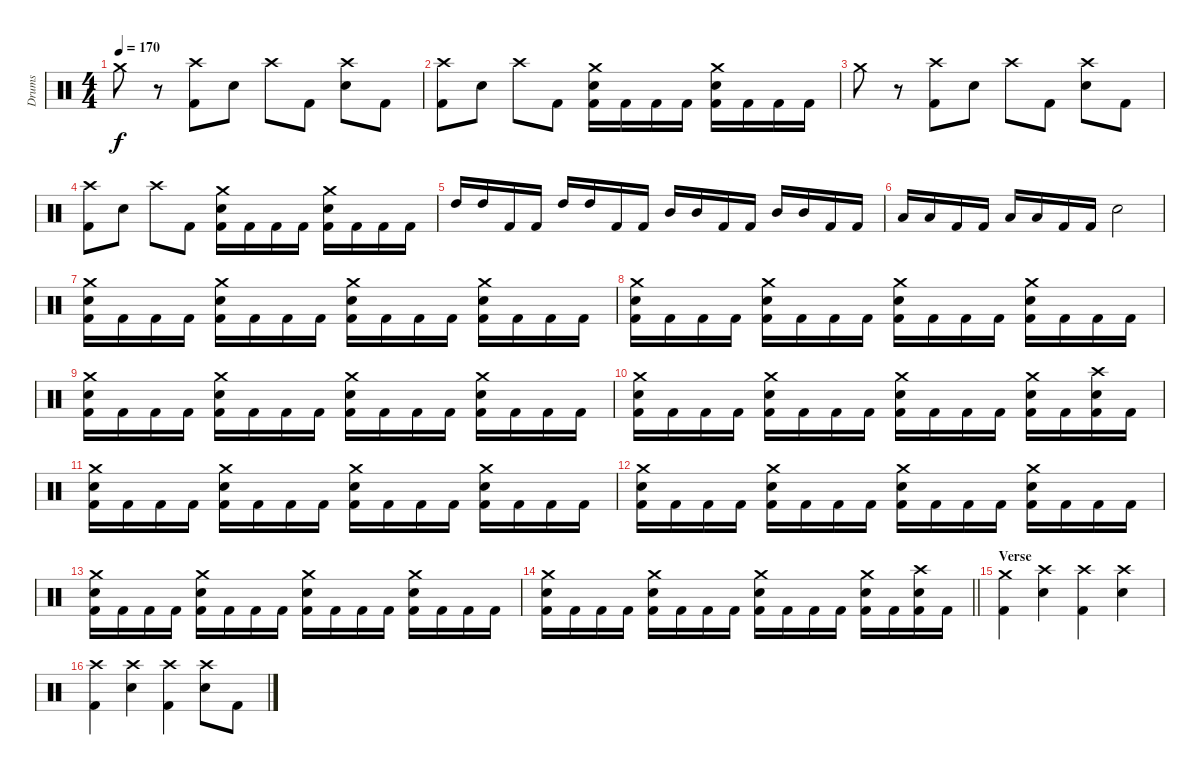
\track ("Drums" "Drums") {instrument percussion}
\staff {score}
\articulation defaults
\ts (4 4)
\tempo 170
\clef neutral
\ks c "Crash medium (hit)".8{dy f}
r.8 ("Crash high (hit)" "Kick (hit) 2").8 "Electric Snare (hit)".8 "Crash high (hit)".8 "Kick (hit) 2".8 ("Crash high (hit)" "Electric Snare (hit)").8 "Kick (hit) 2".8 |
("Crash high (hit)" "Kick (hit) 2").8 "Electric Snare (hit)".8 "Crash high (hit)".8 "Kick (hit) 2".8 ("Crash medium (hit)" "Electric Snare (hit)" "Kick (hit) 2").16 "Kick (hit) 2".16 "Kick (hit) 2".16 "Kick (hit) 2".16 ("Crash medium (hit)" "Electric Snare (hit)" "Kick (hit) 2").16 "Kick (hit) 2".16 "Kick (hit) 2".16 "Kick (hit) 2".16 |
"Crash medium (hit)".8 r.8 ("Crash high (hit)" "Kick (hit) 2").8 "Electric Snare (hit)".8 "Crash high (hit)".8 "Kick (hit) 2".8 ("Crash high (hit)" "Electric Snare (hit)").8 "Kick (hit) 2".8 |
("Crash high (hit)" "Kick (hit) 2").8 "Electric Snare (hit)".8 "Crash high (hit)".8 "Kick (hit) 2".8 ("Crash medium (hit)" "Electric Snare (hit)" "Kick (hit) 2").16 "Kick (hit) 2".16 "Kick (hit) 2".16 "Kick (hit) 2".16 ("Crash medium (hit)" "Electric Snare (hit)" "Kick (hit) 2").16 "Kick (hit) 2".16 "Kick (hit) 2".16 "Kick (hit) 2".16 |
"High Tom (hit)".16 "High Tom (hit)".16 "Kick (hit) 2".16 "Kick (hit) 2".16 "High Tom (hit)".16 "High Tom (hit)".16 "Kick (hit) 2".16 "Kick (hit) 2".16 "Mid Tom (hit)".16 "Mid Tom (hit)".16 "Kick (hit) 2".16 "Kick (hit) 2".16 "Mid Tom (hit)".16 "Mid Tom (hit)".16 "Kick (hit) 2".16 "Kick (hit) 2".16 |
"Low Tom (hit)".16 "Low Tom (hit)".16 "Kick (hit) 2".16 "Kick (hit) 2".16 "Low Tom (hit)".16 "Low Tom (hit)".16 "Kick (hit) 2".16 "Kick (hit) 2".16 "Electric Snare (hit)".2 |
("Crash medium (hit)" "Electric Snare (hit)" "Kick (hit) 2").16 "Kick (hit) 2".16 "Kick (hit) 2".16 "Kick (hit) 2".16 ("Crash medium (hit)" "Electric Snare (hit)" "Kick (hit) 2").16 "Kick (hit) 2".16 "Kick (hit) 2".16 "Kick (hit) 2".16 ("Crash medium (hit)" "Electric Snare (hit)" "Kick (hit) 2").16 "Kick (hit) 2".16 "Kick (hit) 2".16 "Kick (hit) 2".16 ("Crash medium (hit)" "Electric Snare (hit)" "Kick (hit) 2").16 "Kick (hit) 2".16 "Kick (hit) 2".16 "Kick (hit) 2".16 |
("Crash medium (hit)" "Electric Snare (hit)" "Kick (hit) 2").16 "Kick (hit) 2".16 "Kick (hit) 2".16 "Kick (hit) 2".16 ("Crash medium (hit)" "Electric Snare (hit)" "Kick (hit) 2").16 "Kick (hit) 2".16 "Kick (hit) 2".16 "Kick (hit) 2".16 ("Crash medium (hit)" "Electric Snare (hit)" "Kick (hit) 2").16 "Kick (hit) 2".16 "Kick (hit) 2".16 "Kick (hit) 2".16 ("Crash medium (hit)" "Electric Snare (hit)" "Kick (hit) 2").16 "Kick (hit) 2".16 "Kick (hit) 2".16 "Kick (hit) 2".16 |
("Crash medium (hit)" "Electric Snare (hit)" "Kick (hit) 2").16 "Kick (hit) 2".16 "Kick (hit) 2".16 "Kick (hit) 2".16 ("Crash medium (hit)" "Electric Snare (hit)" "Kick (hit) 2").16 "Kick (hit) 2".16 "Kick (hit) 2".16 "Kick (hit) 2".16 ("Crash medium (hit)" "Electric Snare (hit)" "Kick (hit) 2").16 "Kick (hit) 2".16 "Kick (hit) 2".16 "Kick (hit) 2".16 ("Crash medium (hit)" "Electric Snare (hit)" "Kick (hit) 2").16 "Kick (hit) 2".16 "Kick (hit) 2".16 "Kick (hit) 2".16 |
("Crash medium (hit)" "Electric Snare (hit)" "Kick (hit) 2").16 "Kick (hit) 2".16 "Kick (hit) 2".16 "Kick (hit) 2".16 ("Crash medium (hit)" "Electric Snare (hit)" "Kick (hit) 2").16 "Kick (hit) 2".16 "Kick (hit) 2".16 "Kick (hit) 2".16 ("Crash medium (hit)" "Electric Snare (hit)" "Kick (hit) 2").16 "Kick (hit) 2".16 "Kick (hit) 2".16 "Kick (hit) 2".16 ("Crash medium (hit)" "Electric Snare (hit)" "Kick (hit) 2").16 "Kick (hit) 2".16 ("Crash high (hit)" "Electric Snare (hit)" "Kick (hit) 2").16 "Kick (hit) 2".16 |
("Crash medium (hit)" "Electric Snare (hit)" "Kick (hit) 2").16 "Kick (hit) 2".16 "Kick (hit) 2".16 "Kick (hit) 2".16 ("Crash medium (hit)" "Electric Snare (hit)" "Kick (hit) 2").16 "Kick (hit) 2".16 "Kick (hit) 2".16 "Kick (hit) 2".16 ("Crash medium (hit)" "Electric Snare (hit)" "Kick (hit) 2").16 "Kick (hit) 2".16 "Kick (hit) 2".16 "Kick (hit) 2".16 ("Crash medium (hit)" "Electric Snare (hit)" "Kick (hit) 2").16 "Kick (hit) 2".16 "Kick (hit) 2".16 "Kick (hit) 2".16 |
("Crash medium (hit)" "Electric Snare (hit)" "Kick (hit) 2").16 "Kick (hit) 2".16 "Kick (hit) 2".16 "Kick (hit) 2".16 ("Crash medium (hit)" "Electric Snare (hit)" "Kick (hit) 2").16 "Kick (hit) 2".16 "Kick (hit) 2".16 "Kick (hit) 2".16 ("Crash medium (hit)" "Electric Snare (hit)" "Kick (hit) 2").16 "Kick (hit) 2".16 "Kick (hit) 2".16 "Kick (hit) 2".16 ("Crash medium (hit)" "Electric Snare (hit)" "Kick (hit) 2").16 "Kick (hit) 2".16 "Kick (hit) 2".16 "Kick (hit) 2".16 |
("Crash medium (hit)" "Electric Snare (hit)" "Kick (hit) 2").16 "Kick (hit) 2".16 "Kick (hit) 2".16 "Kick (hit) 2".16 ("Crash medium (hit)" "Electric Snare (hit)" "Kick (hit) 2").16 "Kick (hit) 2".16 "Kick (hit) 2".16 "Kick (hit) 2".16 ("Crash medium (hit)" "Electric Snare (hit)" "Kick (hit) 2").16 "Kick (hit) 2".16 "Kick (hit) 2".16 "Kick (hit) 2".16 ("Crash medium (hit)" "Electric Snare (hit)" "Kick (hit) 2").16 "Kick (hit) 2".16 "Kick (hit) 2".16 "Kick (hit) 2".16 |
\barLineRight lightlight
("Crash medium (hit)" "Electric Snare (hit)" "Kick (hit) 2").16 "Kick (hit) 2".16 "Kick (hit) 2".16 "Kick (hit) 2".16 ("Crash medium (hit)" "Electric Snare (hit)" "Kick (hit) 2").16 "Kick (hit) 2".16 "Kick (hit) 2".16 "Kick (hit) 2".16 ("Crash medium (hit)" "Electric Snare (hit)" "Kick (hit) 2").16 "Kick (hit) 2".16 "Kick (hit) 2".16 "Kick (hit) 2".16 ("Crash medium (hit)" "Electric Snare (hit)" "Kick (hit) 2").16 "Kick (hit) 2".16 ("Crash high (hit)" "Electric Snare (hit)" "Kick (hit) 2").16 "Kick (hit) 2".16 |
\section ("" "Verse")
("Crash medium (hit)" "Kick (hit) 2").4 ("Crash high (hit)" "Electric Snare (hit)").4 ("Crash high (hit)" "Kick (hit) 2").4 ("Crash high (hit)" "Electric Snare (hit)").4 |
("Crash high (hit)" "Kick (hit) 2").4 ("Crash high (hit)" "Electric Snare (hit)").4 ("Crash high (hit)" "Kick (hit) 2").4 ("Crash high (hit)" "Electric Snare (hit)").8 "Kick (hit) 2".8
